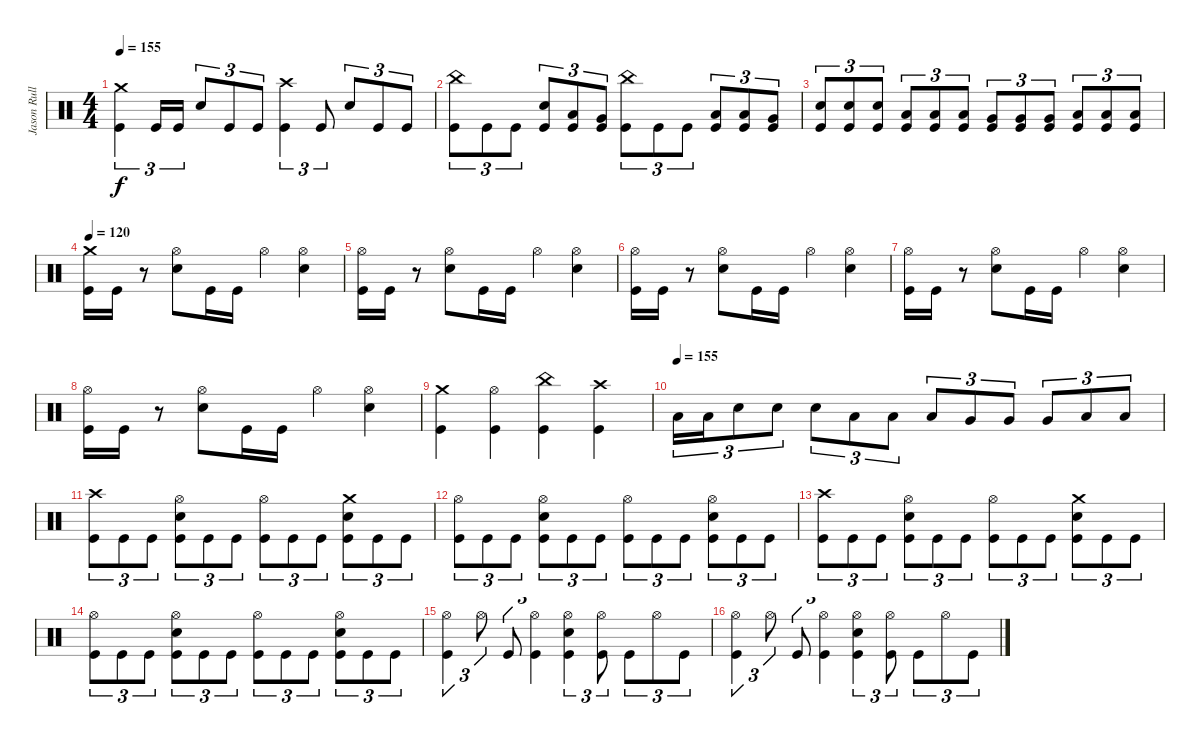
\track ("Jason Rullo - BATTERIE" "Jason Rull") {instrument percussion}
\staff {score}
\articulation defaults
\ts (4 4)
\tempo 155
\clef neutral
\ks c
("Crash medium (hit)" "Kick (hit)").4{tu (3 2) dy f} "Kick (hit)".16{tu (3 2)} "Kick (hit)".16{tu (3 2)} "Snare (hit) 2".8{tu (3 2)} "Kick (hit)".8{tu (3 2)} "Kick (hit)".8{tu (3 2)} ("Crash high (hit)" "Kick (hit)").4{tu (3 2)} "Kick (hit)".8{tu (3 2)} "Snare (hit) 2".8{tu (3 2)} "Kick (hit)".8{tu (3 2)} "Kick (hit)".8{tu (3 2)} |
("China (hit)" "Kick (hit)").8{tu (3 2)} "Kick (hit)".8{tu (3 2)} "Kick (hit)".8{tu (3 2)} ("Snare (hit) 2" "Kick (hit)").8{tu (3 2)} ("Low Tom (hit)" "Kick (hit)").8{tu (3 2)} ("Very Low Tom (hit)" "Kick (hit)").8{tu (3 2)} ("China (hit)" "Kick (hit)").8{tu (3 2)} "Kick (hit)".8{tu (3 2)} "Kick (hit)".8{tu (3 2)} ("Low Tom (hit)" "Kick (hit)").8{tu (3 2)} ("Low Tom (hit)" "Kick (hit)").8{tu (3 2)} ("Very Low Tom (hit)" "Kick (hit)").8{tu (3 2)} |
("Snare (hit) 2" "Kick (hit)").8{tu (3 2)} ("Snare (hit) 2" "Kick (hit)").8{tu (3 2)} ("Snare (hit) 2" "Kick (hit)").8{tu (3 2)} ("Low Tom (hit)" "Kick (hit)").8{tu (3 2)} ("Low Tom (hit)" "Kick (hit)").8{tu (3 2)} ("Low Tom (hit)" "Kick (hit)").8{tu (3 2)} ("Very Low Tom (hit)" "Kick (hit)").8{tu (3 2)} ("Very Low Tom (hit)" "Kick (hit)").8{tu (3 2)} ("Very Low Tom (hit)" "Kick (hit)").8{tu (3 2)} ("Low Floor Tom (hit)" "Kick (hit)").8{tu (3 2)} ("Low Floor Tom (hit)" "Kick (hit)").8{tu (3 2)} ("Low Floor Tom (hit)" "Kick (hit)").8{tu (3 2)} |
\tempo 120
("Crash medium (hit)" "Kick (hit)").16 "Kick (hit)".16 r.8 ("Hi-Hat (open)" "Snare (hit) 2").8 "Kick (hit)".16 "Kick (hit)".16 "Hi-Hat (open)".4 ("Hi-Hat (open)" "Snare (hit) 2").4 |
("Hi-Hat (open)" "Kick (hit)").16 "Kick (hit)".16 r.8 ("Hi-Hat (open)" "Snare (hit) 2").8 "Kick (hit)".16 "Kick (hit)".16 "Hi-Hat (open)".4 ("Hi-Hat (open)" "Snare (hit) 2").4 |
("Hi-Hat (open)" "Kick (hit)").16 "Kick (hit)".16 r.8 ("Hi-Hat (open)" "Snare (hit) 2").8 "Kick (hit)".16 "Kick (hit)".16 "Hi-Hat (open)".4 ("Hi-Hat (open)" "Snare (hit) 2").4 |
("Hi-Hat (open)" "Kick (hit)").16 "Kick (hit)".16 r.8 ("Hi-Hat (open)" "Snare (hit) 2").8 "Kick (hit)".16 "Kick (hit)".16 "Hi-Hat (open)".4 ("Hi-Hat (open)" "Snare (hit) 2").4 |
("Hi-Hat (open)" "Kick (hit)").16 "Kick (hit)".16 r.8 ("Hi-Hat (open)" "Snare (hit) 2").8 "Kick (hit)".16 "Kick (hit)".16 "Hi-Hat (open)".4 ("Hi-Hat (open)" "Snare (hit) 2").4 |
("Crash medium (hit)" "Kick (hit)").4 ("Hi-Hat (open)" "Kick (hit)").4 ("China (hit)" "Kick (hit)").4 ("Crash high (hit)" "Kick (hit)").4 |
\tempo (155)
"Low Tom (hit)".16{tu (3 2)} "Low Tom (hit)".16{tu (3 2)} "Snare (hit) 2".8{tu (3 2)} "Snare (hit) 2".8{tu (3 2)} "Snare (hit) 2".8{tu (3 2)} "Low Tom (hit)".8{tu (3 2)} "Low Tom (hit)".8{tu (3 2)} "Low Tom (hit)".8{tu (3 2)} "Very Low Tom (hit)".8{tu (3 2)} "Very Low Tom (hit)".8{tu (3 2)} "Very Low Tom (hit)".8{tu (3 2)} "Low Floor Tom (hit)".8{tu (3 2)} "Low Floor Tom (hit)".8{tu (3 2)} |
("Crash high (hit)" "Kick (hit)").8{tu (3 2)} "Kick (hit)".8{tu (3 2)} "Kick (hit)".8{tu (3 2)} ("Hi-Hat (open)" "Snare (hit) 2" "Kick (hit)").8{tu (3 2)} "Kick (hit)".8{tu (3 2)} "Kick (hit)".8{tu (3 2)} ("Hi-Hat (open)" "Kick (hit)").8{tu (3 2)} "Kick (hit)".8{tu (3 2)} "Kick (hit)".8{tu (3 2)} ("Crash medium (hit)" "Snare (hit) 2" "Kick (hit)").8{tu (3 2)} "Kick (hit)".8{tu (3 2)} "Kick (hit)".8{tu (3 2)} |
("Hi-Hat (open)" "Kick (hit)").8{tu (3 2)} "Kick (hit)".8{tu (3 2)} "Kick (hit)".8{tu (3 2)} ("Hi-Hat (open)" "Snare (hit) 2" "Kick (hit)").8{tu (3 2)} "Kick (hit)".8{tu (3 2)} "Kick (hit)".8{tu (3 2)} ("Hi-Hat (open)" "Kick (hit)").8{tu (3 2)} "Kick (hit)".8{tu (3 2)} "Kick (hit)".8{tu (3 2)} ("Hi-Hat (open)" "Snare (hit) 2" "Kick (hit)").8{tu (3 2)} "Kick (hit)".8{tu (3 2)} "Kick (hit)".8{tu (3 2)} |
("Crash high (hit)" "Kick (hit)").8{tu (3 2)} "Kick (hit)".8{tu (3 2)} "Kick (hit)".8{tu (3 2)} ("Hi-Hat (open)" "Snare (hit) 2" "Kick (hit)").8{tu (3 2)} "Kick (hit)".8{tu (3 2)} "Kick (hit)".8{tu (3 2)} ("Hi-Hat (open)" "Kick (hit)").8{tu (3 2)} "Kick (hit)".8{tu (3 2)} "Kick (hit)".8{tu (3 2)} ("Crash medium (hit)" "Snare (hit) 2" "Kick (hit)").8{tu (3 2)} "Kick (hit)".8{tu (3 2)} "Kick (hit)".8{tu (3 2)} |
("Hi-Hat (open)" "Kick (hit)").8{tu (3 2)} "Kick (hit)".8{tu (3 2)} "Kick (hit)".8{tu (3 2)} ("Hi-Hat (open)" "Snare (hit) 2" "Kick (hit)").8{tu (3 2)} "Kick (hit)".8{tu (3 2)} "Kick (hit)".8{tu (3 2)} ("Hi-Hat (open)" "Kick (hit)").8{tu (3 2)} "Kick (hit)".8{tu (3 2)} "Kick (hit)".8{tu (3 2)} ("Hi-Hat (open)" "Snare (hit) 2" "Kick (hit)").8{tu (3 2)} "Kick (hit)".8{tu (3 2)} "Kick (hit)".8{tu (3 2)} |
("Hi-Hat (open)" "Kick (hit)").4{tu (3 2)} "Hi-Hat (open)".8{tu (3 2)} "Kick (hit)".8{tu (3 2)} ("Hi-Hat (open)" "Kick (hit)").4{tu (3 2)} ("Hi-Hat (open)" "Snare (hit) 2" "Kick (hit)").4{tu (3 2)} ("Hi-Hat (open)" "Kick (hit)").8{tu (3 2)} "Kick (hit)".8{tu (3 2)} "Hi-Hat (open)".8{tu (3 2)} "Kick (hit)".8{tu (3 2)} |
("Hi-Hat (open)" "Kick (hit)").4{tu (3 2)} "Hi-Hat (open)".8{tu (3 2)} "Kick (hit)".8{tu (3 2)} ("Hi-Hat (open)" "Kick (hit)").4{tu (3 2)} ("Hi-Hat (open)" "Snare (hit) 2" "Kick (hit)").4{tu (3 2)} ("Hi-Hat (open)" "Kick (hit)").8{tu (3 2)} "Kick (hit)".8{tu (3 2)} "Hi-Hat (open)".8{tu (3 2)} "Kick (hit)".8{tu (3 2)}
